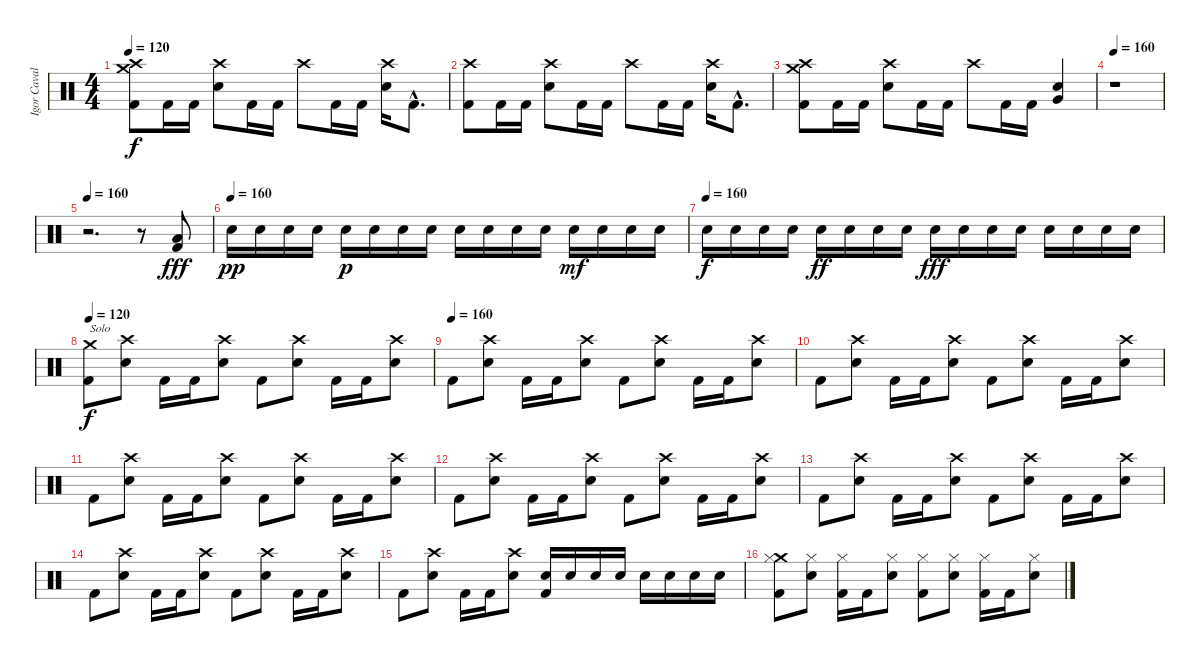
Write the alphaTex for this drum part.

\track ("Igor Cavalera" "Igor Caval") {instrument percussion}
\staff {score}
\articulation defaults
\ts (4 4)
\tempo 120
\clef neutral
\ks c
("Crash medium (hit)" "Crash high (hit)" "Kick (hit) 2").8{dy f} "Kick (hit) 2".16 "Kick (hit) 2".16 ("Crash high (hit)" "Electric Snare (hit)").8 "Kick (hit) 2".16 "Kick (hit) 2".16 "Crash high (hit)".8 "Kick (hit) 2".16 "Kick (hit) 2".16 ("Crash high (hit)" "Electric Snare (hit)").16 "Kick (hit) 2"{hac}.8{d} |
("Crash high (hit)" "Kick (hit) 2").8 "Kick (hit) 2".16 "Kick (hit) 2".16 ("Crash high (hit)" "Electric Snare (hit)").8 "Kick (hit) 2".16 "Kick (hit) 2".16 "Crash high (hit)".8 "Kick (hit) 2".16 "Kick (hit) 2".16 ("Crash high (hit)" "Electric Snare (hit)").16 "Kick (hit) 2"{hac}.8{d} |
("Crash medium (hit)" "Crash high (hit)" "Kick (hit) 2").8 "Kick (hit) 2".16 "Kick (hit) 2".16 ("Crash high (hit)" "Electric Snare (hit)").8 "Kick (hit) 2".16 "Kick (hit) 2".16 "Crash high (hit)".8 "Kick (hit) 2".16 "Kick (hit) 2".16 ("Very Low Tom (hit)" "Electric Snare (hit)").4 |
\tempo 160
r.1 |
\tempo 160
r.2{d} r.8 ("Low Floor Tom (hit)" "Kick (hit) 2").8{dy fff} |
\tempo (160)
"Electric Snare (hit)".16{dy pp} "Electric Snare (hit)".16 "Electric Snare (hit)".16 "Electric Snare (hit)".16 "Electric Snare (hit)".16{dy p} "Electric Snare (hit)".16 "Electric Snare (hit)".16 "Electric Snare (hit)".16 "Electric Snare (hit)".16 "Electric Snare (hit)".16 "Electric Snare (hit)".16 "Electric Snare (hit)".16 "Electric Snare (hit)".16{dy mf} "Electric Snare (hit)".16 "Electric Snare (hit)".16 "Electric Snare (hit)".16 |
\tempo (160)
"Electric Snare (hit)".16{dy f} "Electric Snare (hit)".16 "Electric Snare (hit)".16 "Electric Snare (hit)".16 "Electric Snare (hit)".16{dy ff} "Electric Snare (hit)".16 "Electric Snare (hit)".16 "Electric Snare (hit)".16 "Electric Snare (hit)".16{dy fff} "Electric Snare (hit)".16 "Electric Snare (hit)".16 "Electric Snare (hit)".16 "Electric Snare (hit)".16 "Electric Snare (hit)".16 "Electric Snare (hit)".16 "Electric Snare (hit)".16 |
\tempo 160
\tempo 120
("Crash medium (hit)" "Kick (hit) 2").8{txt "Solo" dy f} ("Crash high (hit)" "Electric Snare (hit)").8 "Kick (hit) 2".16 "Kick (hit) 2".16 ("Crash high (hit)" "Electric Snare (hit)").8 "Kick (hit) 2".8 ("Crash high (hit)" "Electric Snare (hit)").8 "Kick (hit) 2".16 "Kick (hit) 2".16 ("Crash high (hit)" "Electric Snare (hit)").8 |
\tempo (160)
"Kick (hit) 2".8 ("Crash high (hit)" "Electric Snare (hit)").8 "Kick (hit) 2".16 "Kick (hit) 2".16 ("Crash high (hit)" "Electric Snare (hit)").8 "Kick (hit) 2".8 ("Crash high (hit)" "Electric Snare (hit)").8 "Kick (hit) 2".16 "Kick (hit) 2".16 ("Crash high (hit)" "Electric Snare (hit)").8 |
"Kick (hit) 2".8 ("Crash high (hit)" "Electric Snare (hit)").8 "Kick (hit) 2".16 "Kick (hit) 2".16 ("Crash high (hit)" "Electric Snare (hit)").8 "Kick (hit) 2".8 ("Crash high (hit)" "Electric Snare (hit)").8 "Kick (hit) 2".16 "Kick (hit) 2".16 ("Crash high (hit)" "Electric Snare (hit)").8 |
"Kick (hit) 2".8 ("Crash high (hit)" "Electric Snare (hit)").8 "Kick (hit) 2".16 "Kick (hit) 2".16 ("Crash high (hit)" "Electric Snare (hit)").8 "Kick (hit) 2".8 ("Crash high (hit)" "Electric Snare (hit)").8 "Kick (hit) 2".16 "Kick (hit) 2".16 ("Crash high (hit)" "Electric Snare (hit)").8 |
"Kick (hit) 2".8 ("Crash high (hit)" "Electric Snare (hit)").8 "Kick (hit) 2".16 "Kick (hit) 2".16 ("Crash high (hit)" "Electric Snare (hit)").8 "Kick (hit) 2".8 ("Crash high (hit)" "Electric Snare (hit)").8 "Kick (hit) 2".16 "Kick (hit) 2".16 ("Crash high (hit)" "Electric Snare (hit)").8 |
"Kick (hit) 2".8 ("Crash high (hit)" "Electric Snare (hit)").8 "Kick (hit) 2".16 "Kick (hit) 2".16 ("Crash high (hit)" "Electric Snare (hit)").8 "Kick (hit) 2".8 ("Crash high (hit)" "Electric Snare (hit)").8 "Kick (hit) 2".16 "Kick (hit) 2".16 ("Crash high (hit)" "Electric Snare (hit)").8 |
"Kick (hit) 2".8 ("Crash high (hit)" "Electric Snare (hit)").8 "Kick (hit) 2".16 "Kick (hit) 2".16 ("Crash high (hit)" "Electric Snare (hit)").8 "Kick (hit) 2".8 ("Crash high (hit)" "Electric Snare (hit)").8 "Kick (hit) 2".16 "Kick (hit) 2".16 ("Crash high (hit)" "Electric Snare (hit)").8 |
"Kick (hit) 2".8 ("Crash high (hit)" "Electric Snare (hit)").8 "Kick (hit) 2".16 "Kick (hit) 2".16 ("Crash high (hit)" "Electric Snare (hit)").8 ("Electric Snare (hit)" "Kick (hit) 2").16 "Electric Snare (hit)".16 "Electric Snare (hit)".16 "Electric Snare (hit)".16 "Electric Snare (hit)".16 "Electric Snare (hit)".16 "Electric Snare (hit)".16 "Electric Snare (hit)".16 |
("Crash medium (hit)" "Hi-Hat (closed)" "Kick (hit) 2").8 ("Electric Snare (hit)" "Hi-Hat (closed)").8 ("Hi-Hat (closed)" "Kick (hit) 2").16 "Kick (hit) 2".16 ("Electric Snare (hit)" "Hi-Hat (closed)").8 ("Hi-Hat (closed)" "Kick (hit) 2").8 ("Electric Snare (hit)" "Hi-Hat (closed)").8 ("Hi-Hat (closed)" "Kick (hit) 2").16 "Kick (hit) 2".16 ("Electric Snare (hit)" "Hi-Hat (closed)").8
